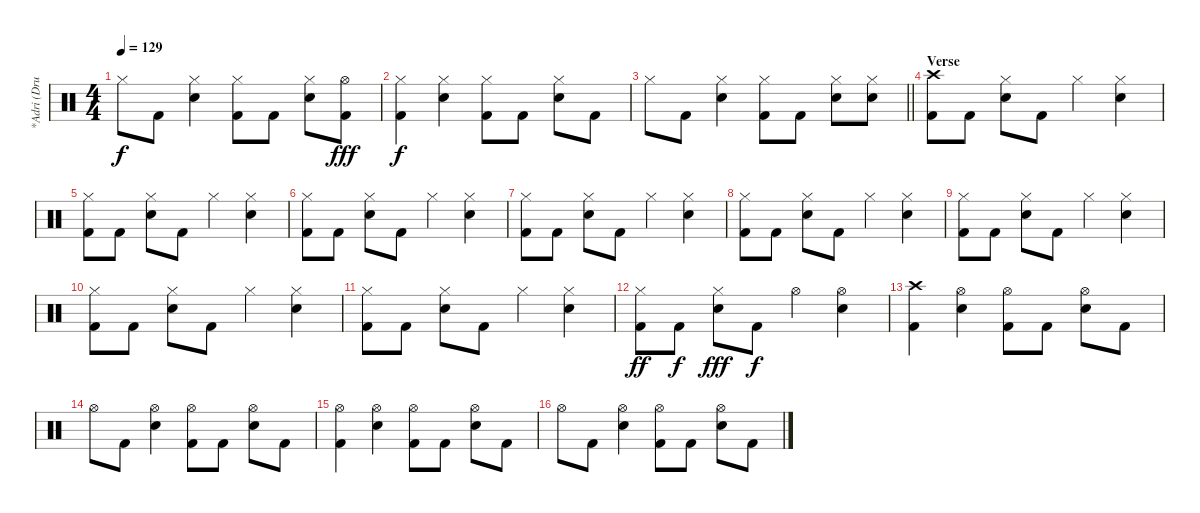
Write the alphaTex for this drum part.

\track ("*Adri (Drum)" "*Adri (Dru") {instrument percussion}
\staff {score}
\articulation defaults
\ts (4 4)
\tempo 129
\clef neutral
\ks c "Hi-Hat (closed)".8{dy f} "Kick (hit) 2".8
("Hi-Hat (closed)" "Snare (hit) 2").4 ("Hi-Hat (closed)" "Kick (hit) 2").8 "Kick (hit) 2".8 ("Hi-Hat (closed)" "Snare (hit) 2").8 ("Hi-Hat (open)" "Kick (hit) 2").8{dy fff} |
("Hi-Hat (closed)" "Kick (hit) 2").4{dy f} ("Hi-Hat (closed)" "Snare (hit) 2").4 ("Hi-Hat (closed)" "Kick (hit) 2").8 "Kick (hit) 2".8 ("Hi-Hat (closed)" "Snare (hit) 2").8 "Kick (hit) 2".8 |
\barLineRight lightlight "Hi-Hat (closed)".8 "Kick (hit) 2".8
("Hi-Hat (closed)" "Snare (hit) 2").4 ("Hi-Hat (closed)" "Kick (hit) 2").8 "Kick (hit) 2".8 ("Hi-Hat (closed)" "Snare (hit) 2").8 ("Hi-Hat (closed)" "Snare (hit) 2").8 |
\section ("" "Verse")
("Crash high (hit)" "Kick (hit) 2").8 "Kick (hit) 2".8 ("Hi-Hat (closed)" "Snare (hit) 2").8 "Kick (hit) 2".8 "Hi-Hat (closed)".4 ("Hi-Hat (closed)" "Snare (hit) 2").4 |
("Hi-Hat (closed)" "Kick (hit) 2").8 "Kick (hit) 2".8 ("Hi-Hat (closed)" "Snare (hit) 2").8 "Kick (hit) 2".8 "Hi-Hat (closed)".4 ("Hi-Hat (closed)" "Snare (hit) 2").4 |
("Hi-Hat (closed)" "Kick (hit) 2").8 "Kick (hit) 2".8 ("Hi-Hat (closed)" "Snare (hit) 2").8 "Kick (hit) 2".8 "Hi-Hat (closed)".4 ("Hi-Hat (closed)" "Snare (hit) 2").4 |
("Hi-Hat (closed)" "Kick (hit) 2").8 "Kick (hit) 2".8 ("Hi-Hat (closed)" "Snare (hit) 2").8 "Kick (hit) 2".8 "Hi-Hat (closed)".4 ("Hi-Hat (closed)" "Snare (hit) 2").4 |
("Hi-Hat (closed)" "Kick (hit) 2").8 "Kick (hit) 2".8 ("Hi-Hat (closed)" "Snare (hit) 2").8 "Kick (hit) 2".8 "Hi-Hat (closed)".4 ("Hi-Hat (closed)" "Snare (hit) 2").4 |
("Hi-Hat (closed)" "Kick (hit) 2").8 "Kick (hit) 2".8 ("Hi-Hat (closed)" "Snare (hit) 2").8 "Kick (hit) 2".8 "Hi-Hat (closed)".4 ("Hi-Hat (closed)" "Snare (hit) 2").4 |
("Hi-Hat (closed)" "Kick (hit) 2").8 "Kick (hit) 2".8 ("Hi-Hat (closed)" "Snare (hit) 2").8 "Kick (hit) 2".8 "Hi-Hat (closed)".4 ("Hi-Hat (closed)" "Snare (hit) 2").4 |
("Hi-Hat (closed)" "Kick (hit) 2").8 "Kick (hit) 2".8 ("Hi-Hat (closed)" "Snare (hit) 2").8 "Kick (hit) 2".8 "Hi-Hat (closed)".4 ("Hi-Hat (closed)" "Snare (hit) 2").4 |
("Hi-Hat (closed)" "Kick (hit) 2").8{dy ff} "Kick (hit) 2".8{dy f} ("Hi-Hat (closed)" "Snare (hit) 2").8{dy fff} "Kick (hit) 2".8{dy f} "Hi-Hat (open)".4 ("Hi-Hat (open)" "Snare (hit) 2").4 |
("Crash high (hit)" "Kick (hit) 2").4 ("Hi-Hat (open)" "Snare (hit) 2").4 ("Hi-Hat (open)" "Kick (hit) 2").8 "Kick (hit) 2".8 ("Hi-Hat (open)" "Snare (hit) 2").8 "Kick (hit) 2".8 |
"Hi-Hat (open)".8 "Kick (hit) 2".8 ("Hi-Hat (open)" "Snare (hit) 2").4 ("Hi-Hat (open)" "Kick (hit) 2").8 "Kick (hit) 2".8 ("Hi-Hat (open)" "Snare (hit) 2").8 "Kick (hit) 2".8 |
("Hi-Hat (open)" "Kick (hit) 2").4 ("Hi-Hat (open)" "Snare (hit) 2").4 ("Hi-Hat (open)" "Kick (hit) 2").8 "Kick (hit) 2".8 ("Hi-Hat (open)" "Snare (hit) 2").8 "Kick (hit) 2".8 |
"Hi-Hat (open)".8 "Kick (hit) 2".8 ("Hi-Hat (open)" "Snare (hit) 2").4 ("Hi-Hat (open)" "Kick (hit) 2").8 "Kick (hit) 2".8 ("Hi-Hat (open)" "Snare (hit) 2").8 "Kick (hit) 2".8
